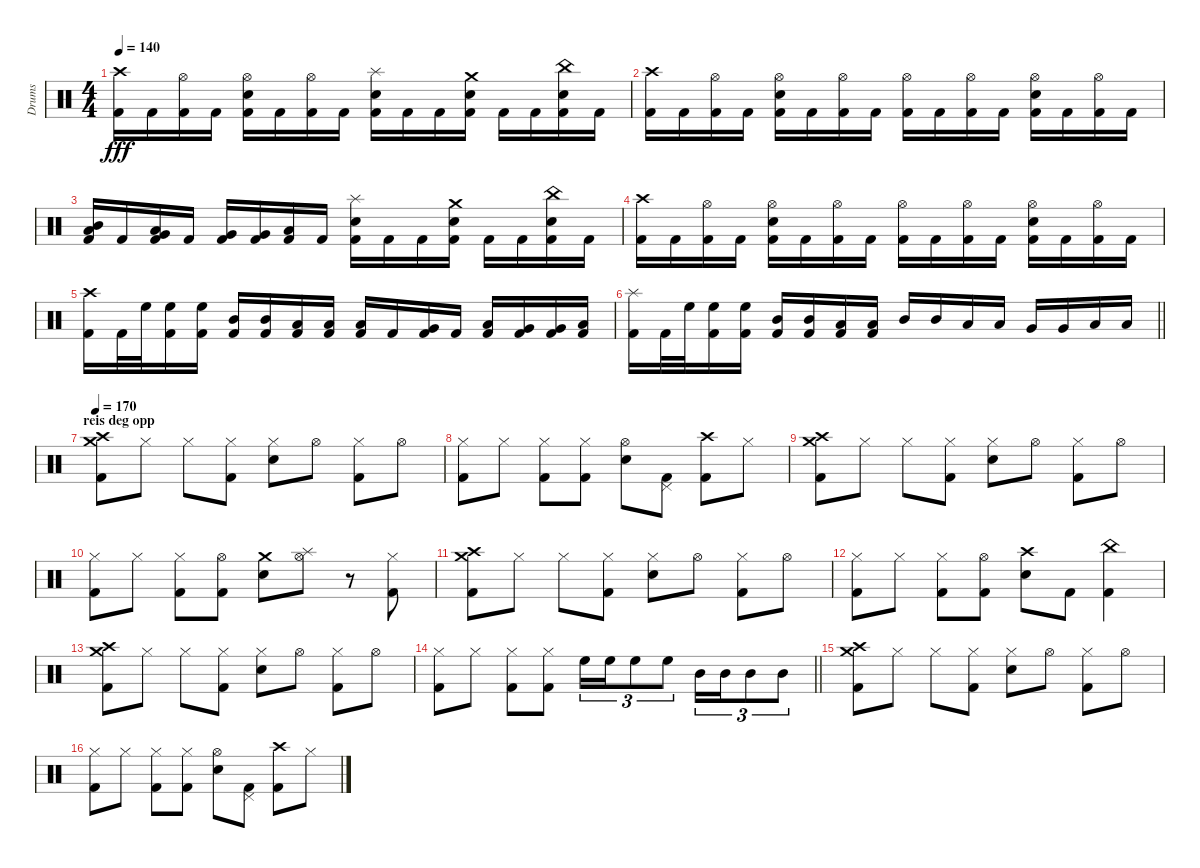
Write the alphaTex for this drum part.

\track ("Drums" "Drums") {instrument percussion}
\staff {score}
\articulation defaults
\ts (4 4)
\tempo 140
\clef neutral
\ks c
("Crash high (hit)" "Kick (hit) 2").16{dy fff} "Kick (hit) 2".16 ("Hi-Hat (open)" "Kick (hit) 2").16 "Kick (hit) 2".16 ("Snare (hit) 2" "Hi-Hat (open)" "Kick (hit) 2").16 "Kick (hit) 2".16 ("Hi-Hat (open)" "Kick (hit) 2").16 "Kick (hit) 2".16 ("Splash (hit)" "Snare (hit) 2" "Kick (hit) 2").16 "Kick (hit) 2".16 "Kick (hit) 2".16 ("Crash medium (hit)" "Snare (hit) 2" "Kick (hit) 2").16 "Kick (hit) 2".16 "Kick (hit) 2".16 ("China (hit)" "Snare (hit) 2" "Kick (hit) 2").16 "Kick (hit) 2".16 |
("Crash high (hit)" "Kick (hit) 2").16 "Kick (hit) 2".16 ("Hi-Hat (open)" "Kick (hit) 2").16 "Kick (hit) 2".16 ("Snare (hit) 2" "Hi-Hat (open)" "Kick (hit) 2").16 "Kick (hit) 2".16 ("Hi-Hat (open)" "Kick (hit) 2").16 "Kick (hit) 2".16 ("Hi-Hat (open)" "Kick (hit) 2").16 "Kick (hit) 2".16 ("Hi-Hat (open)" "Kick (hit) 2").16 "Kick (hit) 2".16 ("Snare (hit) 2" "Hi-Hat (open)" "Kick (hit) 2").16 "Kick (hit) 2".16 ("Hi-Hat (open)" "Kick (hit) 2").16 "Kick (hit) 2".16 |
("Mid Tom (hit)" "Low Tom (hit)" "Kick (hit) 2").16 "Kick (hit) 2".16 ("Low Tom (hit)" "Very Low Tom (hit)" "Kick (hit) 2").16 "Kick (hit) 2".16 ("Very Low Tom (hit)" "Kick (hit) 2").16 ("Very Low Tom (hit)" "Kick (hit) 2").16 ("Low Floor Tom (hit)" "Kick (hit) 2").16 "Kick (hit) 2".16 ("Splash (hit)" "Snare (hit) 2" "Kick (hit) 2").16 "Kick (hit) 2".16 "Kick (hit) 2".16 ("Crash medium (hit)" "Snare (hit) 2" "Kick (hit) 2").16 "Kick (hit) 2".16 "Kick (hit) 2".16 ("China (hit)" "Snare (hit) 2" "Kick (hit) 2").16 "Kick (hit) 2".16 |
("Crash high (hit)" "Kick (hit) 2").16 "Kick (hit) 2".16 ("Hi-Hat (open)" "Kick (hit) 2").16 "Kick (hit) 2".16 ("Snare (hit) 2" "Hi-Hat (open)" "Kick (hit) 2").16 "Kick (hit) 2".16 ("Hi-Hat (open)" "Kick (hit) 2").16 "Kick (hit) 2".16 ("Hi-Hat (open)" "Kick (hit) 2").16 "Kick (hit) 2".16 ("Hi-Hat (open)" "Kick (hit) 2").16 "Kick (hit) 2".16 ("Snare (hit) 2" "Hi-Hat (open)" "Kick (hit) 2").16 "Kick (hit) 2".16 ("Hi-Hat (open)" "Kick (hit) 2").16 "Kick (hit) 2".16 |
("Crash high (hit)" "Kick (hit) 2").16 "Kick (hit) 2".32 "High Floor Tom (hit)".32 ("High Floor Tom (hit)" "Kick (hit) 2").16 ("High Floor Tom (hit)" "Kick (hit) 2").16 ("Mid Tom (hit)" "Kick (hit) 2").16 ("Mid Tom (hit)" "Kick (hit) 2").16 ("Low Tom (hit)" "Kick (hit) 2").16 ("Low Tom (hit)" "Kick (hit) 2").16 ("Low Floor Tom (hit)" "Kick (hit) 2").16 "Kick (hit) 2".16 ("Very Low Tom (hit)" "Kick (hit) 2").16 "Kick (hit) 2".16 ("Low Floor Tom (hit)" "Kick (hit) 2").16 ("Very Low Tom (hit)" "Kick (hit) 2").16 ("Very Low Tom (hit)" "Kick (hit) 2").16 ("Low Floor Tom (hit)" "Kick (hit) 2").16 |
\barLineRight lightlight
("Splash (hit)" "Kick (hit) 2").16 "Kick (hit) 2".32 "High Floor Tom (hit)".32 ("High Floor Tom (hit)" "Kick (hit) 2").16 ("High Floor Tom (hit)" "Kick (hit) 2").16 ("Mid Tom (hit)" "Kick (hit) 2").16 ("Mid Tom (hit)" "Kick (hit) 2").16 ("Low Tom (hit)" "Kick (hit) 2").16 ("Low Tom (hit)" "Kick (hit) 2").16 "Mid Tom (hit)".16 "Mid Tom (hit)".16 "Low Tom (hit)".16 "Low Tom (hit)".16 "Very Low Tom (hit)".16 "Very Low Tom (hit)".16 "Low Floor Tom (hit)".16 "Low Floor Tom (hit)".16 |
\section ("" "reis deg opp")
\tempo 170
("Crash medium (hit)" "Crash high (hit)" "Kick (hit) 2").8 "Hi-Hat (closed)".8 "Hi-Hat (closed)".8 ("Hi-Hat (closed)" "Kick (hit) 2").8 ("Snare (hit) 2" "Hi-Hat (closed)").8 "Hi-Hat (open)".8 ("Hi-Hat (closed)" "Kick (hit) 2").8 "Hi-Hat (open)".8 |
("Hi-Hat (closed)" "Kick (hit) 2").8 "Hi-Hat (closed)".8 ("Hi-Hat (closed)" "Kick (hit) 2").8 ("Hi-Hat (closed)" "Kick (hit) 2").8 ("Snare (hit) 2" "Hi-Hat (open)").8 ("Pedal Hi-Hat (hit)" "Kick (hit) 2").8 ("Crash high (hit)" "Kick (hit) 2").8 "Hi-Hat (closed)".8 |
("Crash medium (hit)" "Crash high (hit)" "Kick (hit) 2").8 "Hi-Hat (closed)".8 "Hi-Hat (closed)".8 ("Hi-Hat (closed)" "Kick (hit) 2").8 ("Snare (hit) 2" "Hi-Hat (closed)").8 "Hi-Hat (open)".8 ("Hi-Hat (closed)" "Kick (hit) 2").8 "Hi-Hat (open)".8 |
("Hi-Hat (closed)" "Kick (hit) 2").8 "Hi-Hat (closed)".8 ("Hi-Hat (closed)" "Kick (hit) 2").8 ("Hi-Hat (open)" "Kick (hit) 2").8 ("Crash medium (hit)" "Snare (hit) 2").8 ("Splash (hit)" "Hi-Hat (open)").8 r.8 ("Hi-Hat (closed)" "Kick (hit) 2").8 |
("Crash medium (hit)" "Crash high (hit)" "Kick (hit) 2").8 "Hi-Hat (closed)".8 "Hi-Hat (closed)".8 ("Hi-Hat (closed)" "Kick (hit) 2").8 ("Snare (hit) 2" "Hi-Hat (closed)").8 "Hi-Hat (open)".8 ("Hi-Hat (closed)" "Kick (hit) 2").8 "Hi-Hat (open)".8 |
("Hi-Hat (closed)" "Kick (hit) 2").8 "Hi-Hat (closed)".8 ("Hi-Hat (closed)" "Kick (hit) 2").8 ("Hi-Hat (open)" "Kick (hit) 2").8 ("Crash high (hit)" "Snare (hit) 2").8 "Kick (hit) 2".8 ("China (hit)" "Kick (hit) 2").4 |
("Crash medium (hit)" "Crash high (hit)" "Kick (hit) 2").8 "Hi-Hat (closed)".8 "Hi-Hat (closed)".8 ("Hi-Hat (closed)" "Kick (hit) 2").8 ("Snare (hit) 2" "Hi-Hat (closed)").8 "Hi-Hat (open)".8 ("Hi-Hat (closed)" "Kick (hit) 2").8 "Hi-Hat (open)".8 |
\barLineRight lightlight
("Hi-Hat (closed)" "Kick (hit) 2").8 "Hi-Hat (closed)".8 ("Hi-Hat (closed)" "Kick (hit) 2").8 ("Hi-Hat (closed)" "Kick (hit) 2").8 "High Floor Tom (hit)".16{tu (3 2)} "High Floor Tom (hit)".16{tu (3 2)} "High Floor Tom (hit)".8{tu (3 2)} "High Floor Tom (hit)".8{tu (3 2)} "Mid Tom (hit)".16{tu (3 2)} "Mid Tom (hit)".16{tu (3 2)} "Mid Tom (hit)".8{tu (3 2)} "Mid Tom (hit)".8{tu (3 2)} |
("Crash medium (hit)" "Crash high (hit)" "Kick (hit) 2").8 "Hi-Hat (closed)".8 "Hi-Hat (closed)".8 ("Hi-Hat (closed)" "Kick (hit) 2").8 ("Snare (hit) 2" "Hi-Hat (closed)").8 "Hi-Hat (open)".8 ("Hi-Hat (closed)" "Kick (hit) 2").8 "Hi-Hat (open)".8 |
("Hi-Hat (closed)" "Kick (hit) 2").8 "Hi-Hat (closed)".8 ("Hi-Hat (closed)" "Kick (hit) 2").8 ("Hi-Hat (closed)" "Kick (hit) 2").8 ("Snare (hit) 2" "Hi-Hat (open)").8 ("Pedal Hi-Hat (hit)" "Kick (hit) 2").8 ("Crash high (hit)" "Kick (hit) 2").8 "Hi-Hat (closed)".8
